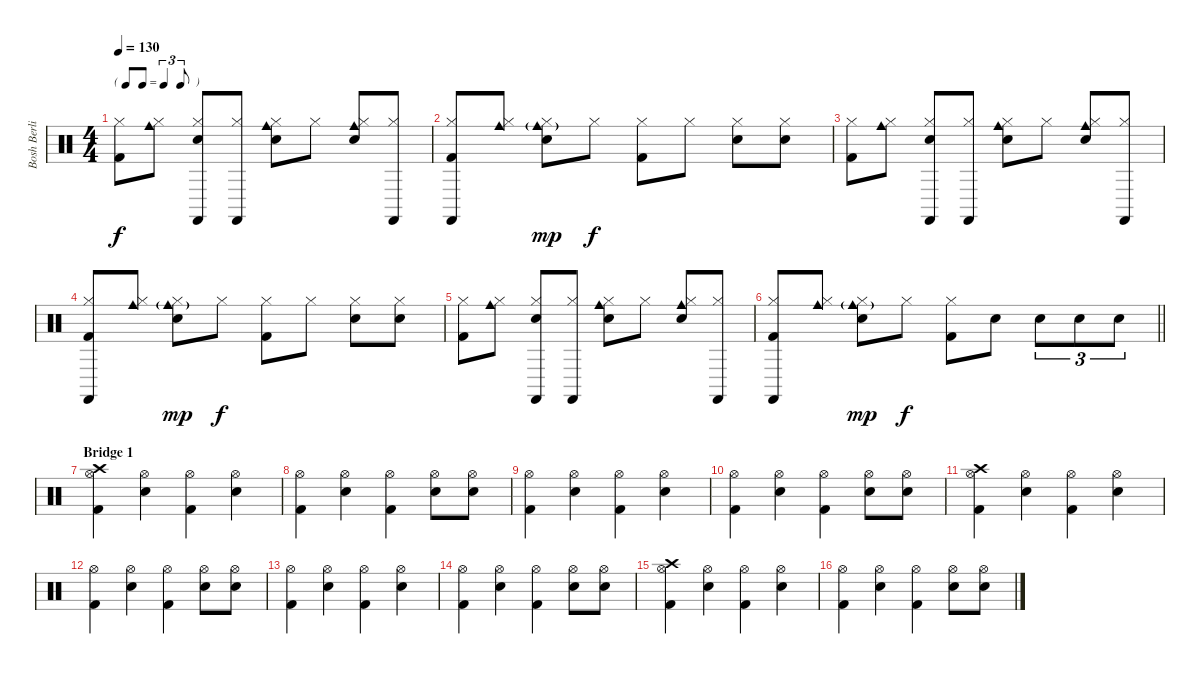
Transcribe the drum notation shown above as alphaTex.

\track ("Bosh Berlin" "Bosh Berli") {instrument percussion}
\staff {score}
\articulation defaults
\ts (4 4)
\tf triplet8th
\tempo 130
\clef neutral
\ks c
("Hi-Hat (closed)" "Kick (hit) 2").8{dy f} ("Cowbell medium (hit)" "Hi-Hat (closed)").8 ("Castanets (hit)" "Hi-Hat (closed)" "Snare (hit) 2").8 ("Castanets (hit)" "Hi-Hat (closed)").8 ("Cowbell medium (hit)" "Hi-Hat (closed)" "Snare (hit) 2").8 "Hi-Hat (closed)".8 ("Cowbell medium (hit)" "Hi-Hat (closed)" "Snare (hit) 2").8 ("Castanets (hit)" "Hi-Hat (closed)").8 |
("Hi-Hat (closed)" "Castanets (hit)" "Kick (hit) 2").8 ("Hi-Hat (closed)" "Cowbell medium (hit)").8 ("Hi-Hat (closed)" "Cowbell medium (hit)"{g} "Snare (hit) 2").8{dy mp} "Hi-Hat (closed)".8{dy f} ("Hi-Hat (closed)" "Kick (hit) 2").8 "Hi-Hat (closed)".8 ("Hi-Hat (closed)" "Snare (hit) 2").8 ("Hi-Hat (closed)" "Snare (hit) 2").8 |
("Hi-Hat (closed)" "Kick (hit) 2").8 ("Cowbell medium (hit)" "Hi-Hat (closed)").8 ("Castanets (hit)" "Hi-Hat (closed)" "Snare (hit) 2").8 ("Castanets (hit)" "Hi-Hat (closed)").8 ("Cowbell medium (hit)" "Hi-Hat (closed)" "Snare (hit) 2").8 "Hi-Hat (closed)".8 ("Cowbell medium (hit)" "Hi-Hat (closed)" "Snare (hit) 2").8 ("Castanets (hit)" "Hi-Hat (closed)").8 |
("Hi-Hat (closed)" "Castanets (hit)" "Kick (hit) 2").8 ("Hi-Hat (closed)" "Cowbell medium (hit)").8 ("Hi-Hat (closed)" "Cowbell medium (hit)"{g} "Snare (hit) 2").8{dy mp} "Hi-Hat (closed)".8{dy f} ("Hi-Hat (closed)" "Kick (hit) 2").8 "Hi-Hat (closed)".8 ("Hi-Hat (closed)" "Snare (hit) 2").8 ("Hi-Hat (closed)" "Snare (hit) 2").8 |
("Hi-Hat (closed)" "Kick (hit) 2").8 ("Cowbell medium (hit)" "Hi-Hat (closed)").8 ("Castanets (hit)" "Hi-Hat (closed)" "Snare (hit) 2").8 ("Castanets (hit)" "Hi-Hat (closed)").8 ("Cowbell medium (hit)" "Hi-Hat (closed)" "Snare (hit) 2").8 "Hi-Hat (closed)".8 ("Cowbell medium (hit)" "Hi-Hat (closed)" "Snare (hit) 2").8 ("Castanets (hit)" "Hi-Hat (closed)").8 |
\barLineRight lightlight
("Hi-Hat (closed)" "Castanets (hit)" "Kick (hit) 2").8 ("Hi-Hat (closed)" "Cowbell medium (hit)").8 ("Hi-Hat (closed)" "Cowbell medium (hit)"{g} "Snare (hit) 2").8{dy mp} "Hi-Hat (closed)".8{dy f} ("Hi-Hat (closed)" "Kick (hit) 2").8 "Snare (hit) 2".8 "Snare (hit) 2".8{tu (3 2)} "Snare (hit) 2".8{tu (3 2)} "Snare (hit) 2".8{tu (3 2)} |
\section ("" "Bridge 1")
("Crash high (hit)" "Hi-Hat (open)" "Kick (hit) 2").4 ("Hi-Hat (open)" "Snare (hit) 2").4 ("Hi-Hat (open)" "Kick (hit) 2").4 ("Hi-Hat (open)" "Snare (hit) 2").4 |
("Hi-Hat (open)" "Kick (hit) 2").4 ("Hi-Hat (open)" "Snare (hit) 2").4 ("Hi-Hat (open)" "Kick (hit) 2").4 ("Hi-Hat (open)" "Snare (hit) 2").8 ("Hi-Hat (open)" "Snare (hit) 2").8 |
("Hi-Hat (open)" "Kick (hit) 2").4 ("Hi-Hat (open)" "Snare (hit) 2").4 ("Hi-Hat (open)" "Kick (hit) 2").4 ("Hi-Hat (open)" "Snare (hit) 2").4 |
("Hi-Hat (open)" "Kick (hit) 2").4 ("Hi-Hat (open)" "Snare (hit) 2").4 ("Hi-Hat (open)" "Kick (hit) 2").4 ("Hi-Hat (open)" "Snare (hit) 2").8 ("Hi-Hat (open)" "Snare (hit) 2").8 |
("Crash high (hit)" "Hi-Hat (open)" "Kick (hit) 2").4 ("Hi-Hat (open)" "Snare (hit) 2").4 ("Hi-Hat (open)" "Kick (hit) 2").4 ("Hi-Hat (open)" "Snare (hit) 2").4 |
("Hi-Hat (open)" "Kick (hit) 2").4 ("Hi-Hat (open)" "Snare (hit) 2").4 ("Hi-Hat (open)" "Kick (hit) 2").4 ("Hi-Hat (open)" "Snare (hit) 2").8 ("Hi-Hat (open)" "Snare (hit) 2").8 |
("Hi-Hat (open)" "Kick (hit) 2").4 ("Hi-Hat (open)" "Snare (hit) 2").4 ("Hi-Hat (open)" "Kick (hit) 2").4 ("Hi-Hat (open)" "Snare (hit) 2").4 |
("Hi-Hat (open)" "Kick (hit) 2").4 ("Hi-Hat (open)" "Snare (hit) 2").4 ("Hi-Hat (open)" "Kick (hit) 2").4 ("Hi-Hat (open)" "Snare (hit) 2").8 ("Hi-Hat (open)" "Snare (hit) 2").8 |
("Crash high (hit)" "Hi-Hat (open)" "Kick (hit) 2").4 ("Hi-Hat (open)" "Snare (hit) 2").4 ("Hi-Hat (open)" "Kick (hit) 2").4 ("Hi-Hat (open)" "Snare (hit) 2").4 |
("Hi-Hat (open)" "Kick (hit) 2").4 ("Hi-Hat (open)" "Snare (hit) 2").4 ("Hi-Hat (open)" "Kick (hit) 2").4 ("Hi-Hat (open)" "Snare (hit) 2").8 ("Hi-Hat (open)" "Snare (hit) 2").8
